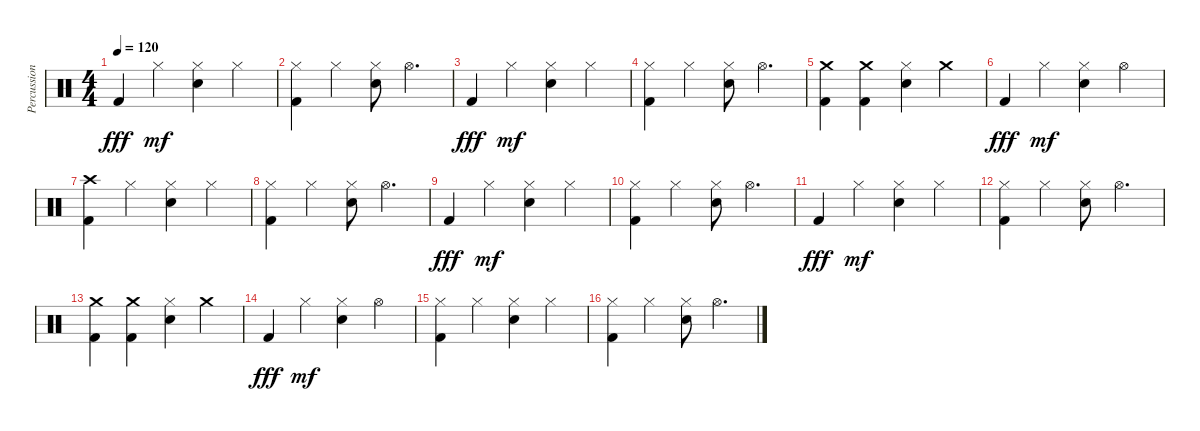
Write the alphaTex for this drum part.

\track ("Percussioni" "Percussion") {instrument percussion}
\staff {score}
\articulation defaults
\ts (4 4)
\tempo 120
\clef neutral
\ks c "Kick (hit) 2".4{dy fff} "Hi-Hat (closed)".4{dy mf}
("Hi-Hat (closed)" "Snare (hit) 2").4 "Hi-Hat (closed)".4 |
("Hi-Hat (closed)" "Kick (hit) 2").4 "Hi-Hat (closed)".4 ("Hi-Hat (closed)" "Snare (hit) 2").8 "Hi-Hat (open)".4{d} |
"Kick (hit) 2".4{dy fff} "Hi-Hat (closed)".4{dy mf} ("Hi-Hat (closed)" "Snare (hit) 2").4 "Hi-Hat (closed)".4 |
("Hi-Hat (closed)" "Kick (hit) 2").4 "Hi-Hat (closed)".4 ("Hi-Hat (closed)" "Snare (hit) 2").8 "Hi-Hat (open)".4{d} |
("Crash medium (hit)" "Kick (hit) 2").4 ("Crash medium (hit)" "Kick (hit) 2").4 ("Hi-Hat (closed)" "Snare (hit) 2").4 "Crash medium (hit)".4 |
"Kick (hit) 2".4{dy fff} "Hi-Hat (closed)".4{dy mf} ("Hi-Hat (closed)" "Snare (hit) 2").4 "Hi-Hat (open)".4 |
("Crash high (hit)" "Kick (hit) 2").4 "Hi-Hat (closed)".4 ("Hi-Hat (closed)" "Snare (hit) 2").4 "Hi-Hat (closed)".4 |
("Hi-Hat (closed)" "Kick (hit) 2").4 "Hi-Hat (closed)".4 ("Hi-Hat (closed)" "Snare (hit) 2").8 "Hi-Hat (open)".4{d} |
"Kick (hit) 2".4{dy fff} "Hi-Hat (closed)".4{dy mf} ("Hi-Hat (closed)" "Snare (hit) 2").4 "Hi-Hat (closed)".4 |
("Hi-Hat (closed)" "Kick (hit) 2").4 "Hi-Hat (closed)".4 ("Hi-Hat (closed)" "Snare (hit) 2").8 "Hi-Hat (open)".4{d} |
"Kick (hit) 2".4{dy fff} "Hi-Hat (closed)".4{dy mf} ("Hi-Hat (closed)" "Snare (hit) 2").4 "Hi-Hat (closed)".4 |
("Hi-Hat (closed)" "Kick (hit) 2").4 "Hi-Hat (closed)".4 ("Hi-Hat (closed)" "Snare (hit) 2").8 "Hi-Hat (open)".4{d} |
("Crash medium (hit)" "Kick (hit) 2").4 ("Crash medium (hit)" "Kick (hit) 2").4 ("Hi-Hat (closed)" "Snare (hit) 2").4 "Crash medium (hit)".4 |
"Kick (hit) 2".4{dy fff} "Hi-Hat (closed)".4{dy mf} ("Hi-Hat (closed)" "Snare (hit) 2").4 "Hi-Hat (open)".4 |
("Hi-Hat (closed)" "Kick (hit) 2").4 "Hi-Hat (closed)".4 ("Hi-Hat (closed)" "Snare (hit) 2").4 "Hi-Hat (closed)".4 |
("Hi-Hat (closed)" "Kick (hit) 2").4 "Hi-Hat (closed)".4 ("Hi-Hat (closed)" "Snare (hit) 2").8 "Hi-Hat (open)".4{d}
